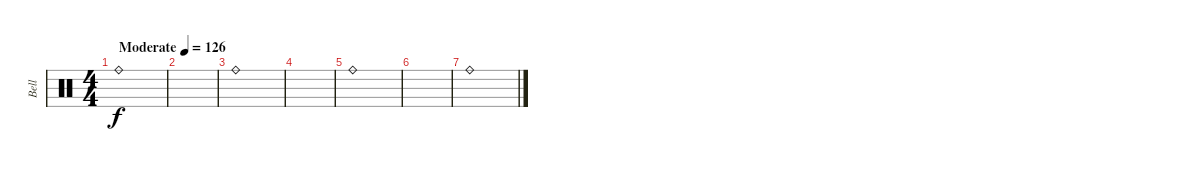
\track ("Bell" "Bell") {instrument percussion}
\staff {score}
\articulation defaults
\ts (4 4)
\tempo (126 "Moderate")
\clef neutral
\ks c "Ride (bell)".1{dy f}
|
|
"Ride (bell)".1 |
|
"Ride (bell)".1 |
|
"Ride (bell)".1
